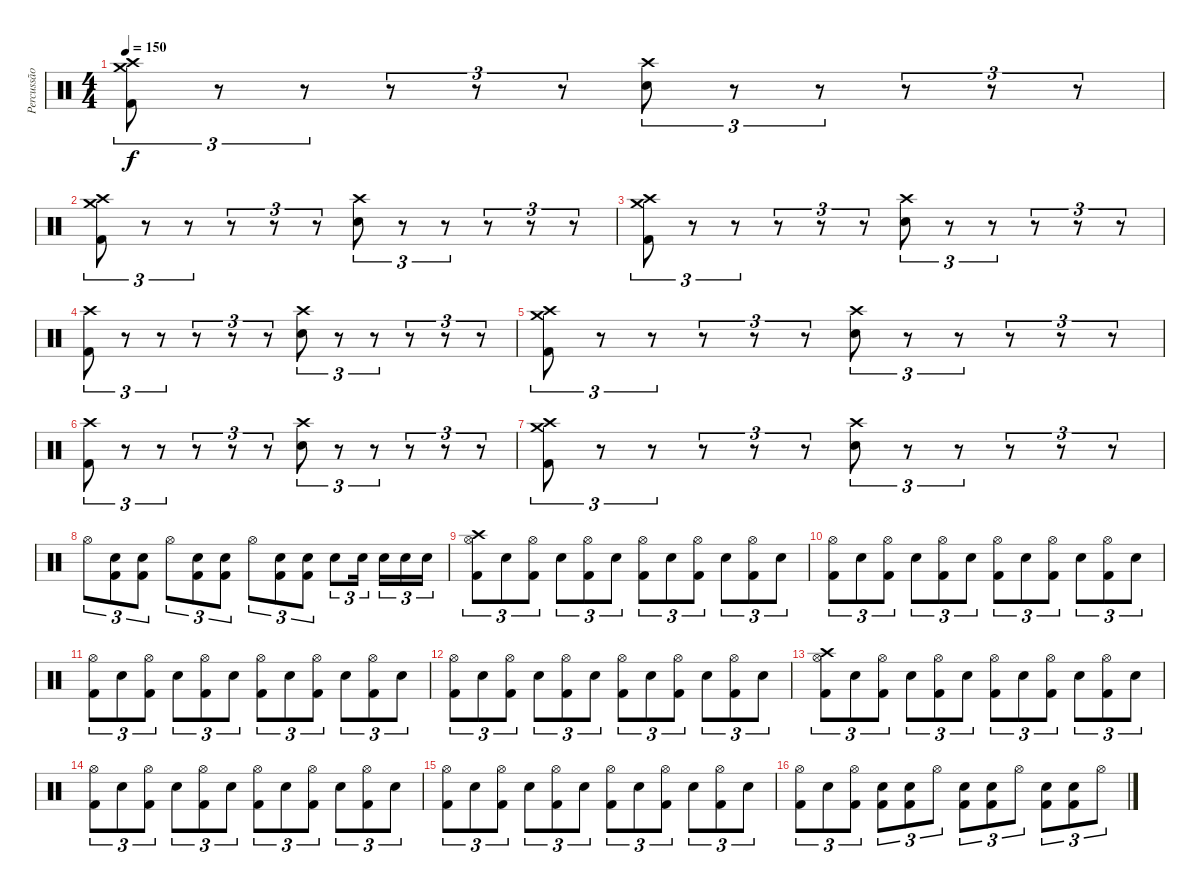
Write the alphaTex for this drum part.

\track ("Percussão" "Percussão") {instrument percussion}
\staff {score}
\articulation defaults
\ts (4 4)
\tempo 150
\clef neutral
\ks c
("Crash high (hit)" "Crash medium (hit)" "Kick (hit) 2").8{tu (3 2) dy f} r.8{tu (3 2)} r.8{tu (3 2)} r.8{tu (3 2)} r.8{tu (3 2)} r.8{tu (3 2)} ("Crash high (hit)" "Snare (hit) 2").8{tu (3 2)} r.8{tu (3 2)} r.8{tu (3 2)} r.8{tu (3 2)} r.8{tu (3 2)} r.8{tu (3 2)} |
("Crash high (hit)" "Crash medium (hit)" "Kick (hit) 2").8{tu (3 2)} r.8{tu (3 2)} r.8{tu (3 2)} r.8{tu (3 2)} r.8{tu (3 2)} r.8{tu (3 2)} ("Crash high (hit)" "Snare (hit) 2").8{tu (3 2)} r.8{tu (3 2)} r.8{tu (3 2)} r.8{tu (3 2)} r.8{tu (3 2)} r.8{tu (3 2)} |
("Crash high (hit)" "Crash medium (hit)" "Kick (hit) 2").8{tu (3 2)} r.8{tu (3 2)} r.8{tu (3 2)} r.8{tu (3 2)} r.8{tu (3 2)} r.8{tu (3 2)} ("Crash high (hit)" "Snare (hit) 2").8{tu (3 2)} r.8{tu (3 2)} r.8{tu (3 2)} r.8{tu (3 2)} r.8{tu (3 2)} r.8{tu (3 2)} |
("Crash high (hit)" "Kick (hit) 2").8{tu (3 2)} r.8{tu (3 2)} r.8{tu (3 2)} r.8{tu (3 2)} r.8{tu (3 2)} r.8{tu (3 2)} ("Crash high (hit)" "Snare (hit) 2").8{tu (3 2)} r.8{tu (3 2)} r.8{tu (3 2)} r.8{tu (3 2)} r.8{tu (3 2)} r.8{tu (3 2)} |
("Crash high (hit)" "Crash medium (hit)" "Kick (hit) 2").8{tu (3 2)} r.8{tu (3 2)} r.8{tu (3 2)} r.8{tu (3 2)} r.8{tu (3 2)} r.8{tu (3 2)} ("Crash high (hit)" "Snare (hit) 2").8{tu (3 2)} r.8{tu (3 2)} r.8{tu (3 2)} r.8{tu (3 2)} r.8{tu (3 2)} r.8{tu (3 2)} |
("Crash high (hit)" "Kick (hit) 2").8{tu (3 2)} r.8{tu (3 2)} r.8{tu (3 2)} r.8{tu (3 2)} r.8{tu (3 2)} r.8{tu (3 2)} ("Crash high (hit)" "Snare (hit) 2").8{tu (3 2)} r.8{tu (3 2)} r.8{tu (3 2)} r.8{tu (3 2)} r.8{tu (3 2)} r.8{tu (3 2)} |
("Crash high (hit)" "Crash medium (hit)" "Kick (hit) 2").8{tu (3 2)} r.8{tu (3 2)} r.8{tu (3 2)} r.8{tu (3 2)} r.8{tu (3 2)} r.8{tu (3 2)} ("Crash high (hit)" "Snare (hit) 2").8{tu (3 2)} r.8{tu (3 2)} r.8{tu (3 2)} r.8{tu (3 2)} r.8{tu (3 2)} r.8{tu (3 2)} |
"Hi-Hat (open)".8{tu (3 2)} ("Snare (hit) 2" "Kick (hit) 2").8{tu (3 2)} ("Snare (hit) 2" "Kick (hit) 2").8{tu (3 2)} "Hi-Hat (open)".8{tu (3 2)} ("Snare (hit) 2" "Kick (hit) 2").8{tu (3 2)} ("Snare (hit) 2" "Kick (hit) 2").8{tu (3 2)} "Hi-Hat (open)".8{tu (3 2)} ("Snare (hit) 2" "Kick (hit) 2").8{tu (3 2)} ("Snare (hit) 2" "Kick (hit) 2").8{tu (3 2)} "Snare (hit) 2".8{tu (3 2)} "Snare (hit) 2".16{tu (3 2) beam splitsecondary} "Snare (hit) 2".16{tu (3 2)} "Snare (hit) 2".16{tu (3 2)} "Snare (hit) 2".16{tu (3 2)} |
("Crash high (hit)" "Hi-Hat (open)" "Kick (hit) 2").8{tu (3 2)} "Snare (hit) 2".8{tu (3 2)} ("Hi-Hat (open)" "Kick (hit) 2").8{tu (3 2)} "Snare (hit) 2".8{tu (3 2)} ("Hi-Hat (open)" "Kick (hit) 2").8{tu (3 2)} "Snare (hit) 2".8{tu (3 2)} ("Hi-Hat (open)" "Kick (hit) 2").8{tu (3 2)} "Snare (hit) 2".8{tu (3 2)} ("Hi-Hat (open)" "Kick (hit) 2").8{tu (3 2)} "Snare (hit) 2".8{tu (3 2)} ("Hi-Hat (open)" "Kick (hit) 2").8{tu (3 2)} "Snare (hit) 2".8{tu (3 2)} |
("Hi-Hat (open)" "Kick (hit) 2").8{tu (3 2)} "Snare (hit) 2".8{tu (3 2)} ("Hi-Hat (open)" "Kick (hit) 2").8{tu (3 2)} "Snare (hit) 2".8{tu (3 2)} ("Hi-Hat (open)" "Kick (hit) 2").8{tu (3 2)} "Snare (hit) 2".8{tu (3 2)} ("Hi-Hat (open)" "Kick (hit) 2").8{tu (3 2)} "Snare (hit) 2".8{tu (3 2)} ("Hi-Hat (open)" "Kick (hit) 2").8{tu (3 2)} "Snare (hit) 2".8{tu (3 2)} ("Hi-Hat (open)" "Kick (hit) 2").8{tu (3 2)} "Snare (hit) 2".8{tu (3 2)} |
("Hi-Hat (open)" "Kick (hit) 2").8{tu (3 2)} "Snare (hit) 2".8{tu (3 2)} ("Hi-Hat (open)" "Kick (hit) 2").8{tu (3 2)} "Snare (hit) 2".8{tu (3 2)} ("Hi-Hat (open)" "Kick (hit) 2").8{tu (3 2)} "Snare (hit) 2".8{tu (3 2)} ("Hi-Hat (open)" "Kick (hit) 2").8{tu (3 2)} "Snare (hit) 2".8{tu (3 2)} ("Hi-Hat (open)" "Kick (hit) 2").8{tu (3 2)} "Snare (hit) 2".8{tu (3 2)} ("Hi-Hat (open)" "Kick (hit) 2").8{tu (3 2)} "Snare (hit) 2".8{tu (3 2)} |
("Hi-Hat (open)" "Kick (hit) 2").8{tu (3 2)} "Snare (hit) 2".8{tu (3 2)} ("Hi-Hat (open)" "Kick (hit) 2").8{tu (3 2)} "Snare (hit) 2".8{tu (3 2)} ("Hi-Hat (open)" "Kick (hit) 2").8{tu (3 2)} "Snare (hit) 2".8{tu (3 2)} ("Hi-Hat (open)" "Kick (hit) 2").8{tu (3 2)} "Snare (hit) 2".8{tu (3 2)} ("Hi-Hat (open)" "Kick (hit) 2").8{tu (3 2)} "Snare (hit) 2".8{tu (3 2)} ("Hi-Hat (open)" "Kick (hit) 2").8{tu (3 2)} "Snare (hit) 2".8{tu (3 2)} |
("Crash high (hit)" "Hi-Hat (open)" "Kick (hit) 2").8{tu (3 2)} "Snare (hit) 2".8{tu (3 2)} ("Hi-Hat (open)" "Kick (hit) 2").8{tu (3 2)} "Snare (hit) 2".8{tu (3 2)} ("Hi-Hat (open)" "Kick (hit) 2").8{tu (3 2)} "Snare (hit) 2".8{tu (3 2)} ("Hi-Hat (open)" "Kick (hit) 2").8{tu (3 2)} "Snare (hit) 2".8{tu (3 2)} ("Hi-Hat (open)" "Kick (hit) 2").8{tu (3 2)} "Snare (hit) 2".8{tu (3 2)} ("Hi-Hat (open)" "Kick (hit) 2").8{tu (3 2)} "Snare (hit) 2".8{tu (3 2)} |
("Hi-Hat (open)" "Kick (hit) 2").8{tu (3 2)} "Snare (hit) 2".8{tu (3 2)} ("Hi-Hat (open)" "Kick (hit) 2").8{tu (3 2)} "Snare (hit) 2".8{tu (3 2)} ("Hi-Hat (open)" "Kick (hit) 2").8{tu (3 2)} "Snare (hit) 2".8{tu (3 2)} ("Hi-Hat (open)" "Kick (hit) 2").8{tu (3 2)} "Snare (hit) 2".8{tu (3 2)} ("Hi-Hat (open)" "Kick (hit) 2").8{tu (3 2)} "Snare (hit) 2".8{tu (3 2)} ("Hi-Hat (open)" "Kick (hit) 2").8{tu (3 2)} "Snare (hit) 2".8{tu (3 2)} |
("Hi-Hat (open)" "Kick (hit) 2").8{tu (3 2)} "Snare (hit) 2".8{tu (3 2)} ("Hi-Hat (open)" "Kick (hit) 2").8{tu (3 2)} "Snare (hit) 2".8{tu (3 2)} ("Hi-Hat (open)" "Kick (hit) 2").8{tu (3 2)} "Snare (hit) 2".8{tu (3 2)} ("Hi-Hat (open)" "Kick (hit) 2").8{tu (3 2)} "Snare (hit) 2".8{tu (3 2)} ("Hi-Hat (open)" "Kick (hit) 2").8{tu (3 2)} "Snare (hit) 2".8{tu (3 2)} ("Hi-Hat (open)" "Kick (hit) 2").8{tu (3 2)} "Snare (hit) 2".8{tu (3 2)} |
("Hi-Hat (open)" "Kick (hit) 2").8{tu (3 2)} "Snare (hit) 2".8{tu (3 2)} ("Hi-Hat (open)" "Kick (hit) 2").8{tu (3 2)} ("Snare (hit) 2" "Kick (hit) 2").8{tu (3 2)} ("Snare (hit) 2" "Kick (hit) 2").8{tu (3 2)} "Hi-Hat (open)".8{tu (3 2)} ("Snare (hit) 2" "Kick (hit) 2").8{tu (3 2)} ("Snare (hit) 2" "Kick (hit) 2").8{tu (3 2)} "Hi-Hat (open)".8{tu (3 2)} ("Snare (hit) 2" "Kick (hit) 2").8{tu (3 2)} ("Snare (hit) 2" "Kick (hit) 2").8{tu (3 2)} "Hi-Hat (open)".8{tu (3 2)}
